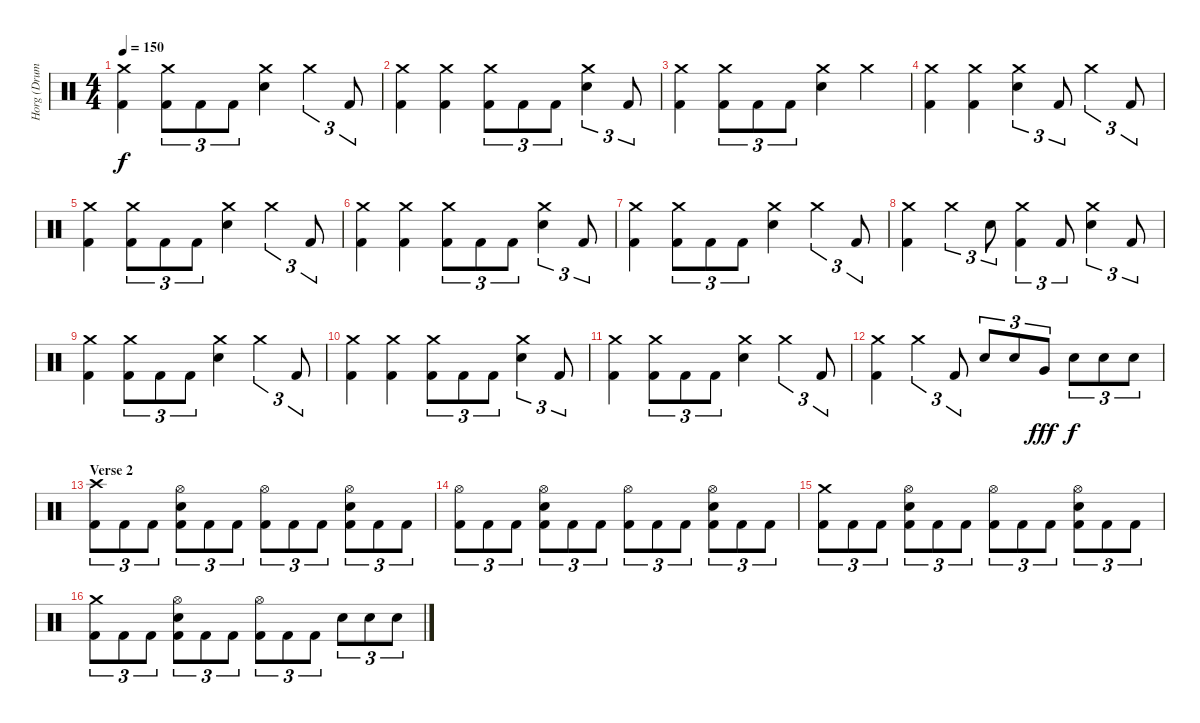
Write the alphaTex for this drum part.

\track ("Horg (Drums)" "Horg (Drum") {instrument percussion}
\staff {score}
\articulation defaults
\ts (4 4)
\tempo 150
\clef neutral
\ks c
("Crash medium (hit)" "Kick (hit) 2").4{dy f} ("Crash medium (hit)" "Kick (hit) 2").8{tu (3 2)} "Kick (hit) 2".8{tu (3 2)} "Kick (hit) 2".8{tu (3 2)} ("Crash medium (hit)" "Electric Snare (hit)").4 "Crash medium (hit)".4{tu (3 2)} "Kick (hit) 2".8{tu (3 2)} |
("Crash medium (hit)" "Kick (hit) 2").4 ("Crash medium (hit)" "Kick (hit) 2").4 ("Crash medium (hit)" "Kick (hit) 2").8{tu (3 2)} "Kick (hit) 2".8{tu (3 2)} "Kick (hit) 2".8{tu (3 2)} ("Crash medium (hit)" "Electric Snare (hit)").4{tu (3 2)} "Kick (hit) 2".8{tu (3 2)} |
("Crash medium (hit)" "Kick (hit) 2").4 ("Crash medium (hit)" "Kick (hit) 2").8{tu (3 2)} "Kick (hit) 2".8{tu (3 2)} "Kick (hit) 2".8{tu (3 2)} ("Crash medium (hit)" "Electric Snare (hit)").4 "Crash medium (hit)".4 |
("Crash medium (hit)" "Kick (hit) 2").4 ("Crash medium (hit)" "Kick (hit) 2").4 ("Crash medium (hit)" "Electric Snare (hit)").4{tu (3 2)} "Kick (hit) 2".8{tu (3 2)} "Crash medium (hit)".4{tu (3 2)} "Kick (hit) 2".8{tu (3 2)} |
("Crash medium (hit)" "Kick (hit) 2").4 ("Crash medium (hit)" "Kick (hit) 2").8{tu (3 2)} "Kick (hit) 2".8{tu (3 2)} "Kick (hit) 2".8{tu (3 2)} ("Crash medium (hit)" "Electric Snare (hit)").4 "Crash medium (hit)".4{tu (3 2)} "Kick (hit) 2".8{tu (3 2)} |
("Crash medium (hit)" "Kick (hit) 2").4 ("Crash medium (hit)" "Kick (hit) 2").4 ("Crash medium (hit)" "Kick (hit) 2").8{tu (3 2)} "Kick (hit) 2".8{tu (3 2)} "Kick (hit) 2".8{tu (3 2)} ("Crash medium (hit)" "Electric Snare (hit)").4{tu (3 2)} "Kick (hit) 2".8{tu (3 2)} |
("Crash medium (hit)" "Kick (hit) 2").4 ("Crash medium (hit)" "Kick (hit) 2").8{tu (3 2)} "Kick (hit) 2".8{tu (3 2)} "Kick (hit) 2".8{tu (3 2)} ("Crash medium (hit)" "Electric Snare (hit)").4 "Crash medium (hit)".4{tu (3 2)} "Kick (hit) 2".8{tu (3 2)} |
("Crash medium (hit)" "Kick (hit) 2").4 "Crash medium (hit)".4{tu (3 2)} "Electric Snare (hit)".8{tu (3 2)} ("Crash medium (hit)" "Kick (hit) 2").4{tu (3 2)} "Kick (hit) 2".8{tu (3 2)} ("Crash medium (hit)" "Electric Snare (hit)").4{tu (3 2)} "Kick (hit) 2".8{tu (3 2)} |
("Crash medium (hit)" "Kick (hit) 2").4 ("Crash medium (hit)" "Kick (hit) 2").8{tu (3 2)} "Kick (hit) 2".8{tu (3 2)} "Kick (hit) 2".8{tu (3 2)} ("Crash medium (hit)" "Electric Snare (hit)").4 "Crash medium (hit)".4{tu (3 2)} "Kick (hit) 2".8{tu (3 2)} |
("Crash medium (hit)" "Kick (hit) 2").4 ("Crash medium (hit)" "Kick (hit) 2").4 ("Crash medium (hit)" "Kick (hit) 2").8{tu (3 2)} "Kick (hit) 2".8{tu (3 2)} "Kick (hit) 2".8{tu (3 2)} ("Crash medium (hit)" "Electric Snare (hit)").4{tu (3 2)} "Kick (hit) 2".8{tu (3 2)} |
("Crash medium (hit)" "Kick (hit) 2").4 ("Crash medium (hit)" "Kick (hit) 2").8{tu (3 2)} "Kick (hit) 2".8{tu (3 2)} "Kick (hit) 2".8{tu (3 2)} ("Crash medium (hit)" "Electric Snare (hit)").4 "Crash medium (hit)".4{tu (3 2)} "Kick (hit) 2".8{tu (3 2)} |
("Crash medium (hit)" "Kick (hit) 2").4 "Crash medium (hit)".4{tu (3 2)} "Kick (hit) 2".8{tu (3 2)} "Electric Snare (hit)".8{tu (3 2)} "Electric Snare (hit)".8{tu (3 2)} "Very Low Tom (hit)".8{tu (3 2) dy fff} "Electric Snare (hit)".8{tu (3 2) dy f} "Electric Snare (hit)".8{tu (3 2)} "Electric Snare (hit)".8{tu (3 2)} |
\section ("" "Verse 2")
("Crash high (hit)" "Kick (hit) 2").8{tu (3 2) volume 15} "Kick (hit) 2".8{tu (3 2)} "Kick (hit) 2".8{tu (3 2)} ("Hi-Hat (open)" "Electric Snare (hit)" "Kick (hit) 2").8{tu (3 2)} "Kick (hit) 2".8{tu (3 2)} "Kick (hit) 2".8{tu (3 2)} ("Hi-Hat (open)" "Kick (hit) 2").8{tu (3 2)} "Kick (hit) 2".8{tu (3 2)} "Kick (hit) 2".8{tu (3 2)} ("Hi-Hat (open)" "Electric Snare (hit)" "Kick (hit) 2").8{tu (3 2)} "Kick (hit) 2".8{tu (3 2)} "Kick (hit) 2".8{tu (3 2)} |
("Hi-Hat (open)" "Kick (hit) 2").8{tu (3 2)} "Kick (hit) 2".8{tu (3 2)} "Kick (hit) 2".8{tu (3 2)} ("Hi-Hat (open)" "Electric Snare (hit)" "Kick (hit) 2").8{tu (3 2)} "Kick (hit) 2".8{tu (3 2)} "Kick (hit) 2".8{tu (3 2)} ("Hi-Hat (open)" "Kick (hit) 2").8{tu (3 2)} "Kick (hit) 2".8{tu (3 2)} "Kick (hit) 2".8{tu (3 2)} ("Hi-Hat (open)" "Electric Snare (hit)" "Kick (hit) 2").8{tu (3 2)} "Kick (hit) 2".8{tu (3 2)} "Kick (hit) 2".8{tu (3 2)} |
("Crash medium (hit)" "Kick (hit) 2").8{tu (3 2)} "Kick (hit) 2".8{tu (3 2)} "Kick (hit) 2".8{tu (3 2)} ("Hi-Hat (open)" "Electric Snare (hit)" "Kick (hit) 2").8{tu (3 2)} "Kick (hit) 2".8{tu (3 2)} "Kick (hit) 2".8{tu (3 2)} ("Hi-Hat (open)" "Kick (hit) 2").8{tu (3 2)} "Kick (hit) 2".8{tu (3 2)} "Kick (hit) 2".8{tu (3 2)} ("Hi-Hat (open)" "Electric Snare (hit)" "Kick (hit) 2").8{tu (3 2)} "Kick (hit) 2".8{tu (3 2)} "Kick (hit) 2".8{tu (3 2)} |
("Crash medium (hit)" "Kick (hit) 2").8{tu (3 2)} "Kick (hit) 2".8{tu (3 2)} "Kick (hit) 2".8{tu (3 2)} ("Hi-Hat (open)" "Electric Snare (hit)" "Kick (hit) 2").8{tu (3 2)} "Kick (hit) 2".8{tu (3 2)} "Kick (hit) 2".8{tu (3 2)} ("Hi-Hat (open)" "Kick (hit) 2").8{tu (3 2)} "Kick (hit) 2".8{tu (3 2)} "Kick (hit) 2".8{tu (3 2)} "Electric Snare (hit)".8{tu (3 2)} "Electric Snare (hit)".8{tu (3 2)} "Electric Snare (hit)".8{tu (3 2)}
